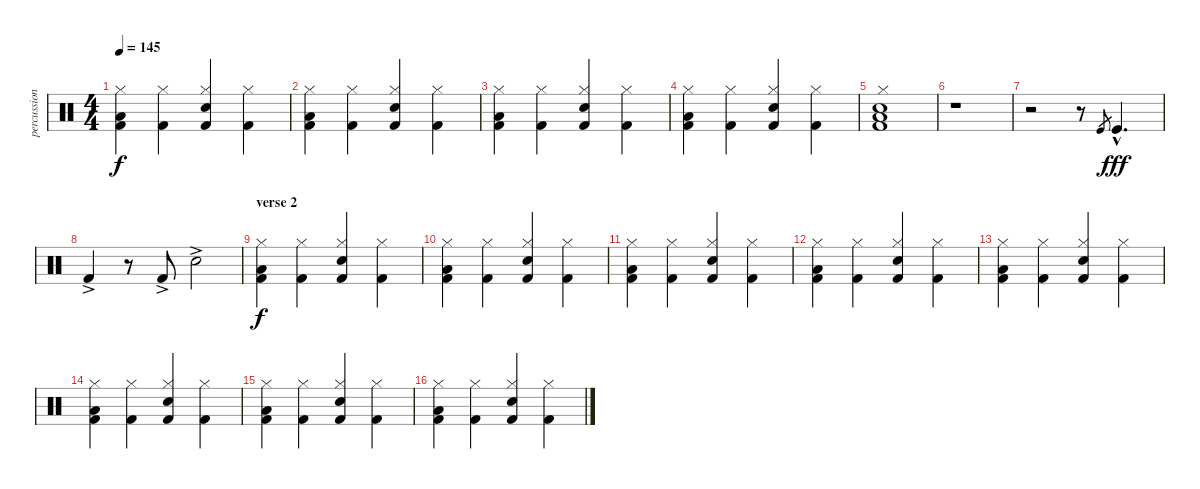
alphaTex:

\track ("percussion" "percussion") {instrument percussion}
\staff {score}
\articulation defaults
\ts (4 4)
\tempo 145
\clef neutral
\ks c
("Kick (hit) 2" "Low Tom (hit)" "Hi-Hat (closed)").4{dy f} ("Kick (hit) 2" "Hi-Hat (closed)").4 ("Snare (hit) 2" "Kick (hit) 2" "Hi-Hat (closed)").4 ("Kick (hit) 2" "Hi-Hat (closed)").4 |
("Kick (hit) 2" "Low Tom (hit)" "Hi-Hat (closed)").4 ("Kick (hit) 2" "Hi-Hat (closed)").4 ("Snare (hit) 2" "Kick (hit) 2" "Hi-Hat (closed)").4 ("Kick (hit) 2" "Hi-Hat (closed)").4 |
("Kick (hit) 2" "Low Tom (hit)" "Hi-Hat (closed)").4 ("Kick (hit) 2" "Hi-Hat (closed)").4 ("Snare (hit) 2" "Kick (hit) 2" "Hi-Hat (closed)").4 ("Kick (hit) 2" "Hi-Hat (closed)").4 |
("Kick (hit) 2" "Low Tom (hit)" "Hi-Hat (closed)").4 ("Kick (hit) 2" "Hi-Hat (closed)").4 ("Snare (hit) 2" "Kick (hit) 2" "Hi-Hat (closed)").4 ("Kick (hit) 2" "Hi-Hat (closed)").4 |
("Snare (hit) 2" "Kick (hit) 2" "Low Tom (hit)" "Hi-Hat (closed)").1 |
r.1 |
r.2 r.8 "Kick (hit)".8{gr} "Kick (hit)"{hac}.4{d dy fff} |
"Kick (hit) 2"{ac}.4 r.8 "Kick (hit) 2"{ac}.8 "Snare (hit) 2"{ac}.2 |
\section ("" "verse 2")
("Kick (hit) 2" "Low Tom (hit)" "Hi-Hat (closed)").4{dy f} ("Kick (hit) 2" "Hi-Hat (closed)").4 ("Snare (hit) 2" "Kick (hit) 2" "Hi-Hat (closed)").4 ("Kick (hit) 2" "Hi-Hat (closed)").4 |
("Kick (hit) 2" "Low Tom (hit)" "Hi-Hat (closed)").4 ("Kick (hit) 2" "Hi-Hat (closed)").4 ("Snare (hit) 2" "Kick (hit) 2" "Hi-Hat (closed)").4 ("Kick (hit) 2" "Hi-Hat (closed)").4 |
("Kick (hit) 2" "Low Tom (hit)" "Hi-Hat (closed)").4 ("Kick (hit) 2" "Hi-Hat (closed)").4 ("Snare (hit) 2" "Kick (hit) 2" "Hi-Hat (closed)").4 ("Kick (hit) 2" "Hi-Hat (closed)").4 |
("Kick (hit) 2" "Low Tom (hit)" "Hi-Hat (closed)").4 ("Kick (hit) 2" "Hi-Hat (closed)").4 ("Snare (hit) 2" "Kick (hit) 2" "Hi-Hat (closed)").4 ("Kick (hit) 2" "Hi-Hat (closed)").4 |
("Kick (hit) 2" "Low Tom (hit)" "Hi-Hat (closed)").4 ("Kick (hit) 2" "Hi-Hat (closed)").4 ("Snare (hit) 2" "Kick (hit) 2" "Hi-Hat (closed)").4 ("Kick (hit) 2" "Hi-Hat (closed)").4 |
("Kick (hit) 2" "Low Tom (hit)" "Hi-Hat (closed)").4 ("Kick (hit) 2" "Hi-Hat (closed)").4 ("Snare (hit) 2" "Kick (hit) 2" "Hi-Hat (closed)").4 ("Kick (hit) 2" "Hi-Hat (closed)").4 |
("Kick (hit) 2" "Low Tom (hit)" "Hi-Hat (closed)").4 ("Kick (hit) 2" "Hi-Hat (closed)").4 ("Snare (hit) 2" "Kick (hit) 2" "Hi-Hat (closed)").4 ("Kick (hit) 2" "Hi-Hat (closed)").4 |
("Kick (hit) 2" "Low Tom (hit)" "Hi-Hat (closed)").4 ("Kick (hit) 2" "Hi-Hat (closed)").4 ("Snare (hit) 2" "Kick (hit) 2" "Hi-Hat (closed)").4 ("Kick (hit) 2" "Hi-Hat (closed)").4
